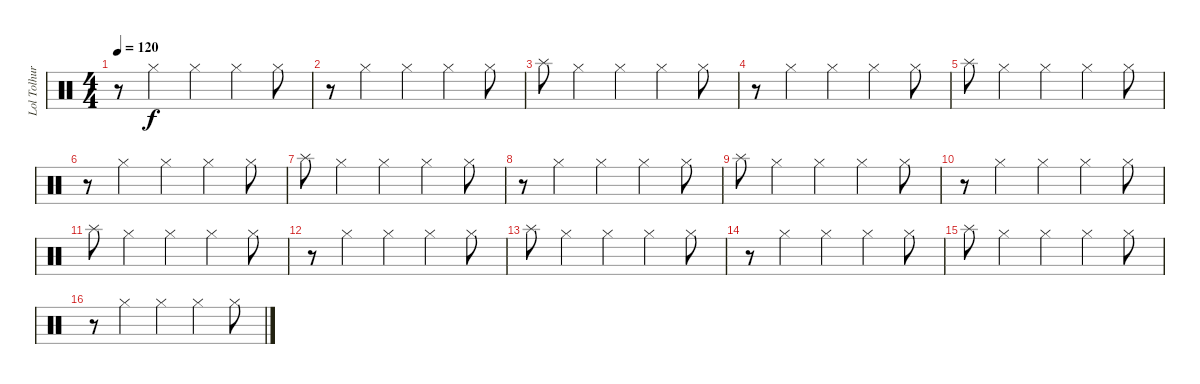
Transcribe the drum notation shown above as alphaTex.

\track ("Lol Tolhurst" "Lol Tolhur") {instrument percussion}
\staff {score}
\articulation defaults
\ts (4 4)
\tempo 120
\clef neutral
\ks c
r.8{dy f} "Hi-Hat (closed)".4 "Hi-Hat (closed)".4 "Hi-Hat (closed)".4 "Hi-Hat (closed)".8 |
r.8 "Hi-Hat (closed)".4 "Hi-Hat (closed)".4 "Hi-Hat (closed)".4 "Hi-Hat (closed)".8 |
"Splash (hit)".8 "Hi-Hat (closed)".4 "Hi-Hat (closed)".4 "Hi-Hat (closed)".4 "Hi-Hat (closed)".8 |
r.8 "Hi-Hat (closed)".4 "Hi-Hat (closed)".4 "Hi-Hat (closed)".4 "Hi-Hat (closed)".8 |
"Splash (hit)".8 "Hi-Hat (closed)".4 "Hi-Hat (closed)".4 "Hi-Hat (closed)".4 "Hi-Hat (closed)".8 |
r.8 "Hi-Hat (closed)".4 "Hi-Hat (closed)".4 "Hi-Hat (closed)".4 "Hi-Hat (closed)".8 |
"Splash (hit)".8 "Hi-Hat (closed)".4 "Hi-Hat (closed)".4 "Hi-Hat (closed)".4 "Hi-Hat (closed)".8 |
r.8 "Hi-Hat (closed)".4 "Hi-Hat (closed)".4 "Hi-Hat (closed)".4 "Hi-Hat (closed)".8 |
"Splash (hit)".8 "Hi-Hat (closed)".4 "Hi-Hat (closed)".4 "Hi-Hat (closed)".4 "Hi-Hat (closed)".8 |
r.8 "Hi-Hat (closed)".4 "Hi-Hat (closed)".4 "Hi-Hat (closed)".4 "Hi-Hat (closed)".8 |
"Splash (hit)".8 "Hi-Hat (closed)".4 "Hi-Hat (closed)".4 "Hi-Hat (closed)".4 "Hi-Hat (closed)".8 |
r.8 "Hi-Hat (closed)".4 "Hi-Hat (closed)".4 "Hi-Hat (closed)".4 "Hi-Hat (closed)".8 |
"Splash (hit)".8 "Hi-Hat (closed)".4 "Hi-Hat (closed)".4 "Hi-Hat (closed)".4 "Hi-Hat (closed)".8 |
r.8 "Hi-Hat (closed)".4 "Hi-Hat (closed)".4 "Hi-Hat (closed)".4 "Hi-Hat (closed)".8 |
"Splash (hit)".8 "Hi-Hat (closed)".4 "Hi-Hat (closed)".4 "Hi-Hat (closed)".4 "Hi-Hat (closed)".8 |
r.8 "Hi-Hat (closed)".4 "Hi-Hat (closed)".4 "Hi-Hat (closed)".4 "Hi-Hat (closed)".8
